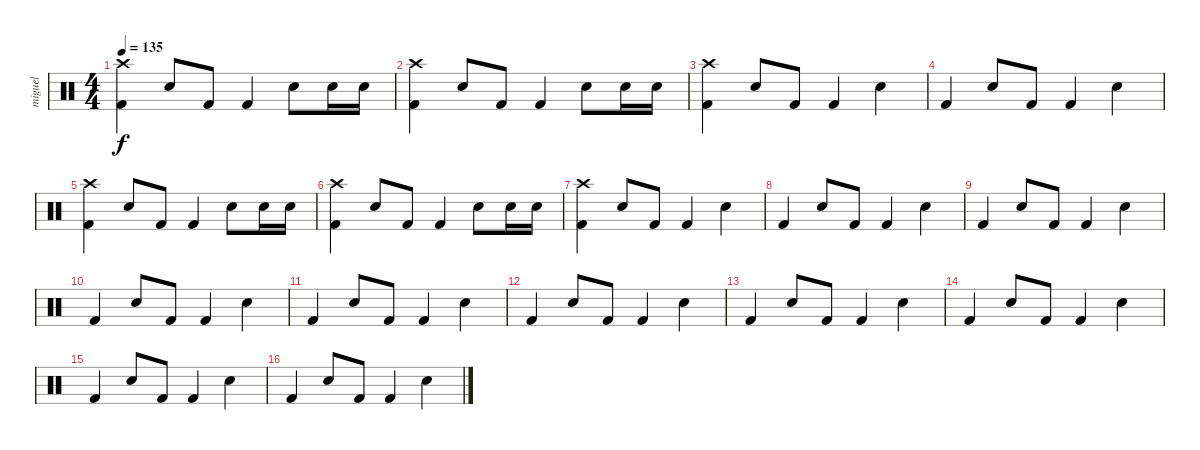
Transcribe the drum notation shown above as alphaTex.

\track ("miguel" "miguel") {instrument percussion}
\staff {score}
\articulation defaults
\ts (4 4)
\tempo 135
\clef neutral
\ks c
("Kick (hit) 2" "Crash high (hit)").4{dy f} "Snare (hit) 2".8 "Kick (hit) 2".8 "Kick (hit) 2".4 "Snare (hit) 2".8 "Snare (hit) 2".16 "Snare (hit) 2".16 |
("Kick (hit) 2" "Crash high (hit)").4 "Snare (hit) 2".8 "Kick (hit) 2".8 "Kick (hit) 2".4 "Snare (hit) 2".8 "Snare (hit) 2".16 "Snare (hit) 2".16 |
("Kick (hit) 2" "Crash high (hit)").4 "Snare (hit) 2".8 "Kick (hit) 2".8 "Kick (hit) 2".4 "Snare (hit) 2".4 |
"Kick (hit) 2".4 "Snare (hit) 2".8 "Kick (hit) 2".8 "Kick (hit) 2".4 "Snare (hit) 2".4 |
("Kick (hit) 2" "Crash high (hit)").4 "Snare (hit) 2".8 "Kick (hit) 2".8 "Kick (hit) 2".4 "Snare (hit) 2".8 "Snare (hit) 2".16 "Snare (hit) 2".16 |
("Kick (hit) 2" "Crash high (hit)").4 "Snare (hit) 2".8 "Kick (hit) 2".8 "Kick (hit) 2".4 "Snare (hit) 2".8 "Snare (hit) 2".16 "Snare (hit) 2".16 |
("Kick (hit) 2" "Crash high (hit)").4 "Snare (hit) 2".8 "Kick (hit) 2".8 "Kick (hit) 2".4 "Snare (hit) 2".4 |
"Kick (hit) 2".4 "Snare (hit) 2".8 "Kick (hit) 2".8 "Kick (hit) 2".4 "Snare (hit) 2".4 |
"Kick (hit) 2".4 "Snare (hit) 2".8 "Kick (hit) 2".8 "Kick (hit) 2".4 "Snare (hit) 2".4 |
"Kick (hit) 2".4 "Snare (hit) 2".8 "Kick (hit) 2".8 "Kick (hit) 2".4 "Snare (hit) 2".4 |
"Kick (hit) 2".4 "Snare (hit) 2".8 "Kick (hit) 2".8 "Kick (hit) 2".4 "Snare (hit) 2".4 |
"Kick (hit) 2".4 "Snare (hit) 2".8 "Kick (hit) 2".8 "Kick (hit) 2".4 "Snare (hit) 2".4 |
"Kick (hit) 2".4 "Snare (hit) 2".8 "Kick (hit) 2".8 "Kick (hit) 2".4 "Snare (hit) 2".4 |
"Kick (hit) 2".4 "Snare (hit) 2".8 "Kick (hit) 2".8 "Kick (hit) 2".4 "Snare (hit) 2".4 |
"Kick (hit) 2".4 "Snare (hit) 2".8 "Kick (hit) 2".8 "Kick (hit) 2".4 "Snare (hit) 2".4 |
"Kick (hit) 2".4 "Snare (hit) 2".8 "Kick (hit) 2".8 "Kick (hit) 2".4 "Snare (hit) 2".4
